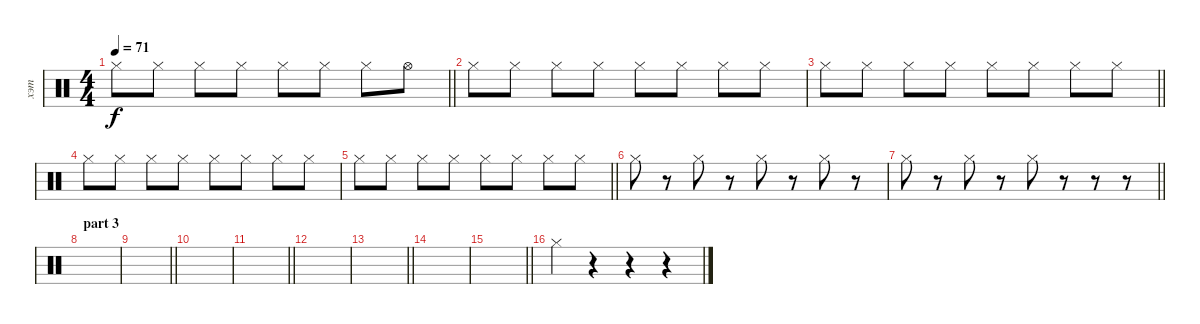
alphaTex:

\track ("хэт" "хэт") {instrument percussion}
\staff {score}
\articulation defaults
\ts (4 4)
\tempo 71
\clef neutral
\barLineRight lightlight
\ks c "Hi-Hat (closed)".8{dy f} "Hi-Hat (closed)".8 "Hi-Hat (closed)".8 "Hi-Hat (closed)".8 "Hi-Hat (closed)".8 "Hi-Hat (closed)".8 "Hi-Hat (closed)".8 "Hi-Hat (open)".8
|
"Hi-Hat (closed)".8 "Hi-Hat (closed)".8 "Hi-Hat (closed)".8 "Hi-Hat (closed)".8 "Hi-Hat (closed)".8 "Hi-Hat (closed)".8 "Hi-Hat (closed)".8 "Hi-Hat (closed)".8 |
\barLineRight lightlight "Hi-Hat (closed)".8 "Hi-Hat (closed)".8 "Hi-Hat (closed)".8 "Hi-Hat (closed)".8 "Hi-Hat (closed)".8 "Hi-Hat (closed)".8 "Hi-Hat (closed)".8 "Hi-Hat (closed)".8
|
"Hi-Hat (closed)".8 "Hi-Hat (closed)".8 "Hi-Hat (closed)".8 "Hi-Hat (closed)".8 "Hi-Hat (closed)".8 "Hi-Hat (closed)".8 "Hi-Hat (closed)".8 "Hi-Hat (closed)".8 |
\barLineRight lightlight "Hi-Hat (closed)".8 "Hi-Hat (closed)".8 "Hi-Hat (closed)".8 "Hi-Hat (closed)".8 "Hi-Hat (closed)".8 "Hi-Hat (closed)".8 "Hi-Hat (closed)".8 "Hi-Hat (closed)".8
|
"Hi-Hat (closed)".8 r.8 "Hi-Hat (closed)".8 r.8 "Hi-Hat (closed)".8 r.8 "Hi-Hat (closed)".8 r.8 |
\barLineRight lightlight "Hi-Hat (closed)".8
r.8 "Hi-Hat (closed)".8 r.8 "Hi-Hat (closed)".8 r.8 r.8 r.8 |
\section ("" "part 3")
|
\barLineRight lightlight
|
|
\barLineRight lightlight
|
|
\barLineRight lightlight
|
|
\barLineRight lightlight
|
"Hi-Hat (closed)".4 r.4 r.4 r.4
